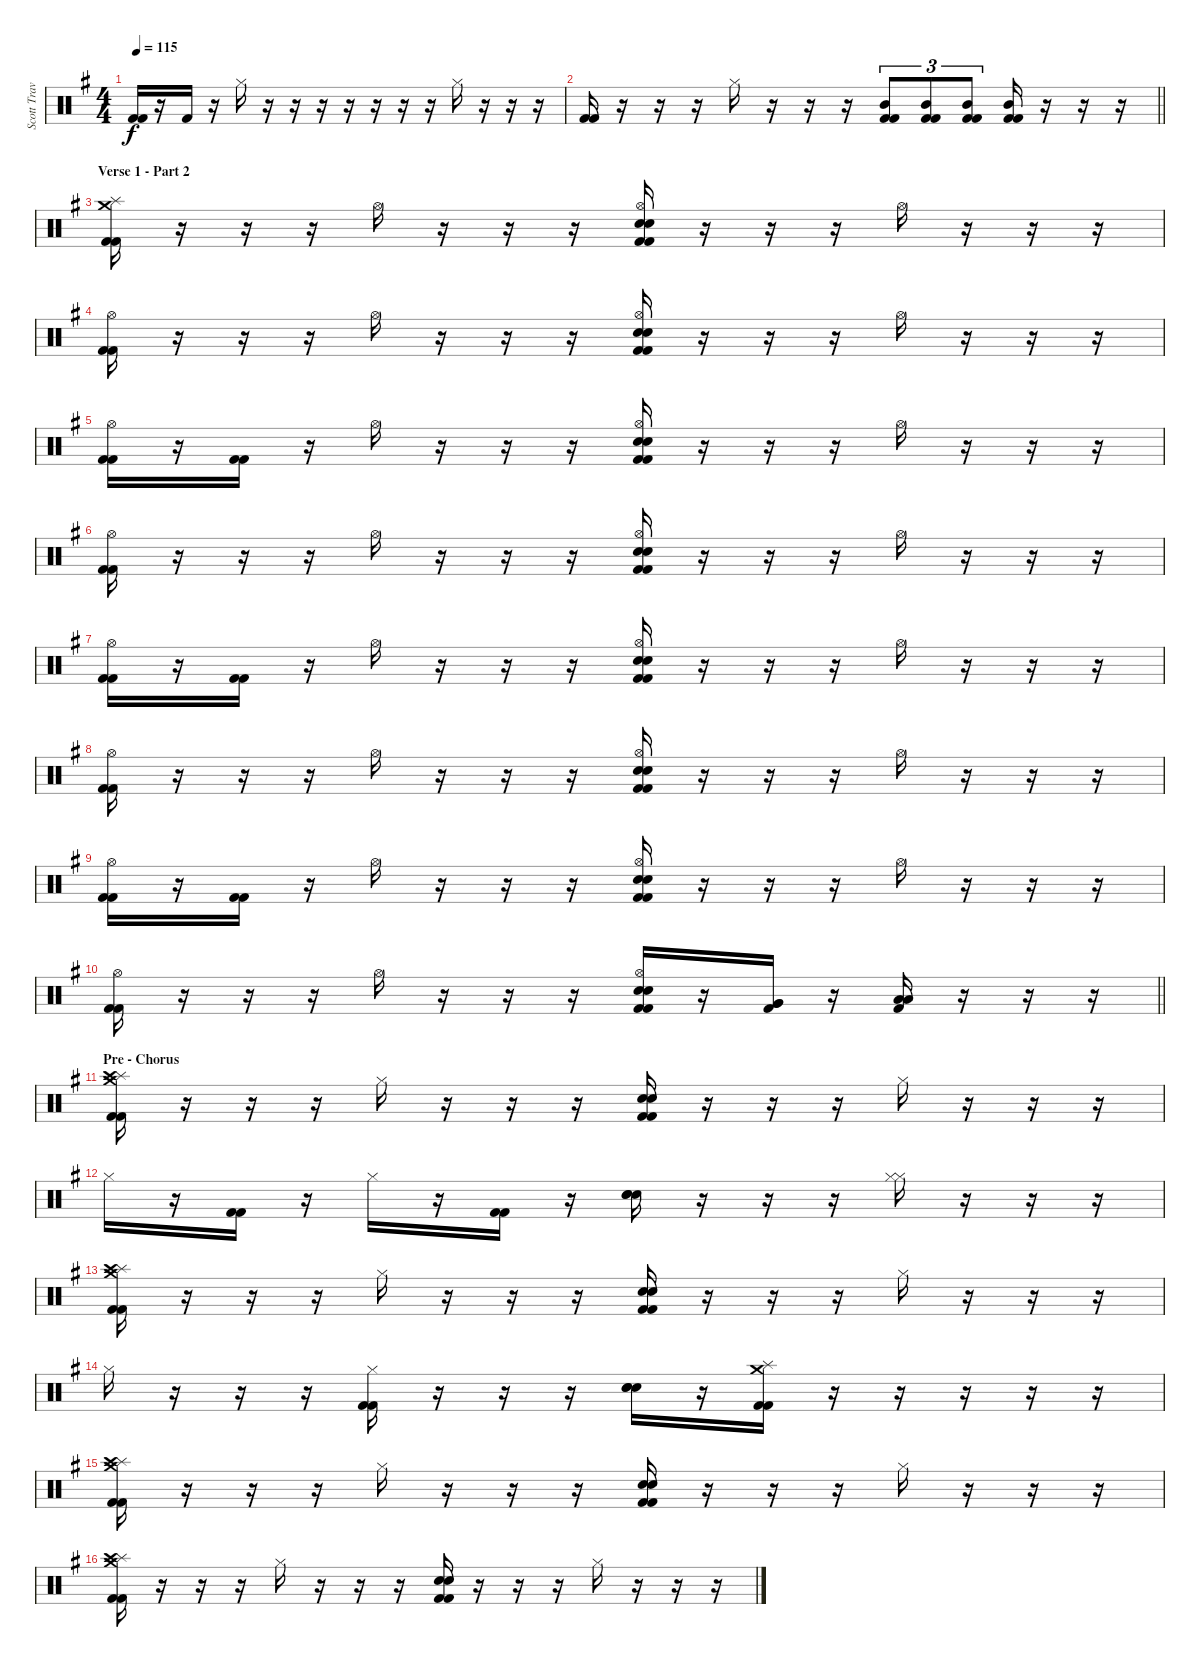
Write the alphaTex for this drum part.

\track ("Scott Travis" "Scott Trav") {instrument percussion}
\staff {score}
\articulation defaults
\ts (4 4)
\tempo 115
\clef neutral
\ks eminor
("Kick (hit) 2" "Kick (hit) 2").16{dy f} r.16 "Kick (hit) 2".16 r.16 "Hi-Hat (closed)".16 r.16 r.16 r.16 r.16 r.16 r.16 r.16 "Hi-Hat (closed)".16 r.16 r.16 r.16 |
\barLineRight lightlight
("Kick (hit) 2" "Kick (hit) 2").16 r.16 r.16 r.16 "Hi-Hat (closed)".16 r.16 r.16 r.16 ("Mid Tom (hit)" "Kick (hit) 2" "Kick (hit) 2").8{tu (3 2)} ("Mid Tom (hit)" "Kick (hit) 2" "Kick (hit) 2").8{tu (3 2)} ("Mid Tom (hit)" "Kick (hit) 2" "Kick (hit) 2").8{tu (3 2)} ("Mid Tom (hit)" "Kick (hit) 2" "Kick (hit) 2").16 r.16 r.16 r.16 |
\section ("" "Verse 1 - Part 2")
("Crash medium (hit)" "Splash (hit)" "Kick (hit) 2" "Kick (hit) 2").16 r.16 r.16 r.16 "Hi-Hat (open)".16 r.16 r.16 r.16 ("Hi-Hat (open)" "Snare (hit) 2" "Snare (hit) 2" "Kick (hit) 2" "Kick (hit) 2").16 r.16 r.16 r.16 "Hi-Hat (open)".16 r.16 r.16 r.16 |
("Hi-Hat (open)" "Kick (hit) 2" "Kick (hit) 2").16 r.16 r.16 r.16 "Hi-Hat (open)".16 r.16 r.16 r.16 ("Hi-Hat (open)" "Snare (hit) 2" "Snare (hit) 2" "Kick (hit) 2" "Kick (hit) 2").16 r.16 r.16 r.16 "Hi-Hat (open)".16 r.16 r.16 r.16 |
("Hi-Hat (open)" "Kick (hit) 2" "Kick (hit) 2").16 r.16 ("Kick (hit) 2" "Kick (hit) 2").16 r.16 "Hi-Hat (open)".16 r.16 r.16 r.16 ("Hi-Hat (open)" "Snare (hit) 2" "Snare (hit) 2" "Kick (hit) 2" "Kick (hit) 2").16 r.16 r.16 r.16 "Hi-Hat (open)".16 r.16 r.16 r.16 |
("Hi-Hat (open)" "Kick (hit) 2" "Kick (hit) 2").16 r.16 r.16 r.16 "Hi-Hat (open)".16 r.16 r.16 r.16 ("Hi-Hat (open)" "Snare (hit) 2" "Snare (hit) 2" "Kick (hit) 2" "Kick (hit) 2").16 r.16 r.16 r.16 "Hi-Hat (open)".16 r.16 r.16 r.16 |
("Hi-Hat (open)" "Kick (hit) 2" "Kick (hit) 2").16 r.16 ("Kick (hit) 2" "Kick (hit) 2").16 r.16 "Hi-Hat (open)".16 r.16 r.16 r.16 ("Hi-Hat (open)" "Snare (hit) 2" "Snare (hit) 2" "Kick (hit) 2" "Kick (hit) 2").16 r.16 r.16 r.16 "Hi-Hat (open)".16 r.16 r.16 r.16 |
("Hi-Hat (open)" "Kick (hit) 2" "Kick (hit) 2").16 r.16 r.16 r.16 "Hi-Hat (open)".16 r.16 r.16 r.16 ("Hi-Hat (open)" "Snare (hit) 2" "Snare (hit) 2" "Kick (hit) 2" "Kick (hit) 2").16 r.16 r.16 r.16 "Hi-Hat (open)".16 r.16 r.16 r.16 |
("Hi-Hat (open)" "Kick (hit) 2" "Kick (hit) 2").16 r.16 ("Kick (hit) 2" "Kick (hit) 2").16 r.16 "Hi-Hat (open)".16 r.16 r.16 r.16 ("Hi-Hat (open)" "Snare (hit) 2" "Snare (hit) 2" "Kick (hit) 2" "Kick (hit) 2").16 r.16 r.16 r.16 "Hi-Hat (open)".16 r.16 r.16 r.16 |
\barLineRight lightlight
("Hi-Hat (open)" "Kick (hit) 2" "Kick (hit) 2").16 r.16 r.16 r.16 "Hi-Hat (open)".16 r.16 r.16 r.16 ("Hi-Hat (open)" "Snare (hit) 2" "Snare (hit) 2" "Kick (hit) 2" "Kick (hit) 2").16 r.16 ("Very Low Tom (hit)" "Very Low Tom (hit)" "Kick (hit) 2").16 r.16 ("Low Floor Tom (hit)" "Low Floor Tom (hit)" "Kick (hit) 2").16 r.16 r.16 r.16 |
\section ("" "Pre - Chorus")
("Splash (hit)" "Crash high (hit)" "Crash medium (hit)" "Kick (hit) 2" "Kick (hit) 2").16 r.16 r.16 r.16 "Hi-Hat (closed)".16 r.16 r.16 r.16 ("Snare (hit) 2" "Snare (hit) 2" "Kick (hit) 2" "Kick (hit) 2").16 r.16 r.16 r.16 "Hi-Hat (closed)".16 r.16 r.16 r.16 |
"Hi-Hat (closed)".16 r.16 ("Kick (hit) 2" "Kick (hit) 2").16 r.16 "Hi-Hat (closed)".16 r.16 ("Kick (hit) 2" "Kick (hit) 2").16 r.16 ("Snare (hit) 2" "Snare (hit) 2" "Snare (hit) 2").16 r.16 r.16 r.16 ("Hi-Hat (closed)" "Hi-Hat (closed)").16 r.16 r.16 r.16 |
("Splash (hit)" "Crash high (hit)" "Crash medium (hit)" "Kick (hit) 2" "Kick (hit) 2").16 r.16 r.16 r.16 "Hi-Hat (closed)".16 r.16 r.16 r.16 ("Snare (hit) 2" "Snare (hit) 2" "Kick (hit) 2" "Kick (hit) 2").16 r.16 r.16 r.16 "Hi-Hat (closed)".16 r.16 r.16 r.16 |
"Hi-Hat (closed)".16 r.16 r.16 r.16 ("Hi-Hat (closed)" "Kick (hit) 2" "Kick (hit) 2").16 r.16 r.16 r.16 ("Snare (hit) 2" "Snare (hit) 2" "Snare (hit) 2").16 r.16 ("Crash medium (hit)" "Splash (hit)" "Kick (hit) 2" "Kick (hit) 2").16 r.16 r.16 r.16 r.16 r.16 |
("Splash (hit)" "Crash high (hit)" "Crash medium (hit)" "Kick (hit) 2" "Kick (hit) 2").16 r.16 r.16 r.16 "Hi-Hat (closed)".16 r.16 r.16 r.16 ("Snare (hit) 2" "Snare (hit) 2" "Kick (hit) 2" "Kick (hit) 2").16 r.16 r.16 r.16 "Hi-Hat (closed)".16 r.16 r.16 r.16 |
("Splash (hit)" "Crash high (hit)" "Crash medium (hit)" "Kick (hit) 2" "Kick (hit) 2").16 r.16 r.16 r.16 "Hi-Hat (closed)".16 r.16 r.16 r.16 ("Snare (hit) 2" "Snare (hit) 2" "Kick (hit) 2" "Kick (hit) 2").16 r.16 r.16 r.16 "Hi-Hat (closed)".16 r.16 r.16 r.16
